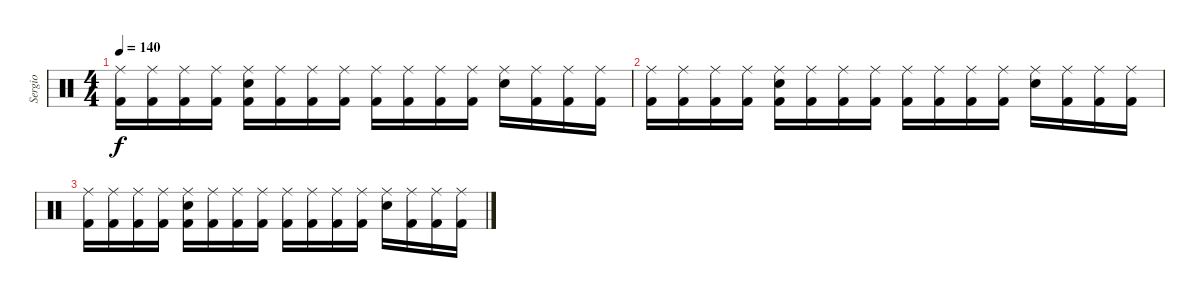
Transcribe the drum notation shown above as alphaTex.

\track ("Sergio" "Sergio") {instrument percussion}
\staff {score}
\articulation defaults
\ts (4 4)
\tempo 140
\clef neutral
\ks c
("Ride (middle)" "Kick (hit) 2").16{dy f} ("Ride (middle)" "Kick (hit) 2").16 ("Ride (middle)" "Kick (hit) 2").16 ("Ride (middle)" "Kick (hit) 2").16 ("Ride (middle)" "Kick (hit) 2" "Electric Snare (hit)").16 ("Ride (middle)" "Kick (hit) 2").16 ("Ride (middle)" "Kick (hit) 2").16 ("Ride (middle)" "Kick (hit) 2").16 ("Ride (middle)" "Kick (hit) 2").16 ("Ride (middle)" "Kick (hit) 2").16 ("Ride (middle)" "Kick (hit) 2").16 ("Ride (middle)" "Kick (hit) 2").16 ("Ride (middle)" "Electric Snare (hit)").16 ("Ride (middle)" "Kick (hit) 2").16 ("Ride (middle)" "Kick (hit) 2").16 ("Ride (middle)" "Kick (hit) 2").16 |
("Ride (middle)" "Kick (hit) 2").16 ("Ride (middle)" "Kick (hit) 2").16 ("Ride (middle)" "Kick (hit) 2").16 ("Ride (middle)" "Kick (hit) 2").16 ("Ride (middle)" "Kick (hit) 2" "Electric Snare (hit)").16 ("Ride (middle)" "Kick (hit) 2").16 ("Ride (middle)" "Kick (hit) 2").16 ("Ride (middle)" "Kick (hit) 2").16 ("Ride (middle)" "Kick (hit) 2").16 ("Ride (middle)" "Kick (hit) 2").16 ("Ride (middle)" "Kick (hit) 2").16 ("Ride (middle)" "Kick (hit) 2").16 ("Ride (middle)" "Electric Snare (hit)").16 ("Ride (middle)" "Kick (hit) 2").16 ("Ride (middle)" "Kick (hit) 2").16 ("Ride (middle)" "Kick (hit) 2").16 |
("Ride (middle)" "Kick (hit) 2").16 ("Ride (middle)" "Kick (hit) 2").16 ("Ride (middle)" "Kick (hit) 2").16 ("Ride (middle)" "Kick (hit) 2").16 ("Ride (middle)" "Kick (hit) 2" "Electric Snare (hit)").16 ("Ride (middle)" "Kick (hit) 2").16 ("Ride (middle)" "Kick (hit) 2").16 ("Ride (middle)" "Kick (hit) 2").16 ("Ride (middle)" "Kick (hit) 2").16 ("Ride (middle)" "Kick (hit) 2").16 ("Ride (middle)" "Kick (hit) 2").16 ("Ride (middle)" "Kick (hit) 2").16 ("Ride (middle)" "Electric Snare (hit)").16 ("Ride (middle)" "Kick (hit) 2").16 ("Ride (middle)" "Kick (hit) 2").16 ("Ride (middle)" "Kick (hit) 2").16
